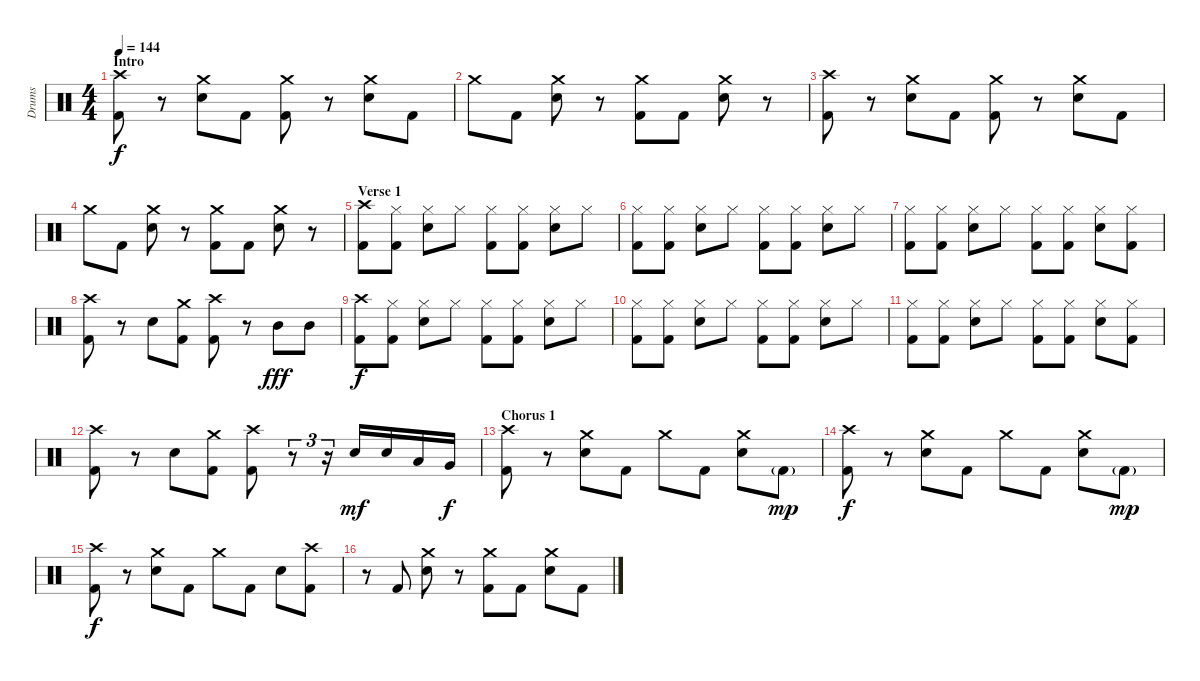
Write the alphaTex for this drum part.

\track ("Drums" "Drums") {instrument percussion}
\staff {score}
\articulation defaults
\ts (4 4)
\section ("" "Intro")
\tempo 144
\clef neutral
\ks c
("Crash high (hit)" "Kick (hit) 2").8{dy f} r.8 ("Crash medium (hit)" "Snare (hit) 2").8 "Kick (hit) 2".8 ("Crash medium (hit)" "Kick (hit) 2").8 r.8 ("Crash medium (hit)" "Snare (hit) 2").8 "Kick (hit) 2".8 |
"Crash medium (hit)".8 "Kick (hit) 2".8 ("Crash medium (hit)" "Snare (hit) 2").8 r.8 ("Crash medium (hit)" "Kick (hit) 2").8 "Kick (hit) 2".8 ("Crash medium (hit)" "Snare (hit) 2").8 r.8 |
("Crash high (hit)" "Kick (hit) 2").8 r.8 ("Crash medium (hit)" "Snare (hit) 2").8 "Kick (hit) 2".8 ("Crash medium (hit)" "Kick (hit) 2").8 r.8 ("Crash medium (hit)" "Snare (hit) 2").8 "Kick (hit) 2".8 |
"Crash medium (hit)".8 "Kick (hit) 2".8 ("Crash medium (hit)" "Snare (hit) 2").8 r.8 ("Crash medium (hit)" "Kick (hit) 2").8 "Kick (hit) 2".8 ("Crash medium (hit)" "Snare (hit) 2").8 r.8 |
\section ("" "Verse 1")
("Crash high (hit)" "Kick (hit) 2").8 ("Hi-Hat (closed)" "Kick (hit) 2").8 ("Hi-Hat (closed)" "Snare (hit) 2").8 "Hi-Hat (closed)".8 ("Hi-Hat (closed)" "Kick (hit) 2").8 ("Hi-Hat (closed)" "Kick (hit) 2").8 ("Hi-Hat (closed)" "Snare (hit) 2").8 "Hi-Hat (closed)".8 |
("Hi-Hat (closed)" "Kick (hit) 2").8 ("Hi-Hat (closed)" "Kick (hit) 2").8 ("Hi-Hat (closed)" "Snare (hit) 2").8 "Hi-Hat (closed)".8 ("Hi-Hat (closed)" "Kick (hit) 2").8 ("Hi-Hat (closed)" "Kick (hit) 2").8 ("Hi-Hat (closed)" "Snare (hit) 2").8 "Hi-Hat (closed)".8 |
("Hi-Hat (closed)" "Kick (hit) 2").8 ("Hi-Hat (closed)" "Kick (hit) 2").8 ("Hi-Hat (closed)" "Snare (hit) 2").8 "Hi-Hat (closed)".8 ("Hi-Hat (closed)" "Kick (hit) 2").8 ("Hi-Hat (closed)" "Kick (hit) 2").8 ("Hi-Hat (closed)" "Snare (hit) 2").8 ("Hi-Hat (closed)" "Kick (hit) 2").8 |
("Crash high (hit)" "Kick (hit) 2").8 r.8 "Snare (hit) 2".8 ("Crash medium (hit)" "Kick (hit) 2").8 ("Crash high (hit)" "Kick (hit) 2").8 r.8 "Mid Tom (hit)".8{dy fff} "Mid Tom (hit)".8 |
("Crash high (hit)" "Kick (hit) 2").8{dy f} ("Hi-Hat (closed)" "Kick (hit) 2").8 ("Hi-Hat (closed)" "Snare (hit) 2").8 "Hi-Hat (closed)".8 ("Hi-Hat (closed)" "Kick (hit) 2").8 ("Hi-Hat (closed)" "Kick (hit) 2").8 ("Hi-Hat (closed)" "Snare (hit) 2").8 "Hi-Hat (closed)".8 |
("Hi-Hat (closed)" "Kick (hit) 2").8 ("Hi-Hat (closed)" "Kick (hit) 2").8 ("Hi-Hat (closed)" "Snare (hit) 2").8 "Hi-Hat (closed)".8 ("Hi-Hat (closed)" "Kick (hit) 2").8 ("Hi-Hat (closed)" "Kick (hit) 2").8 ("Hi-Hat (closed)" "Snare (hit) 2").8 "Hi-Hat (closed)".8 |
("Hi-Hat (closed)" "Kick (hit) 2").8 ("Hi-Hat (closed)" "Kick (hit) 2").8 ("Hi-Hat (closed)" "Snare (hit) 2").8 "Hi-Hat (closed)".8 ("Hi-Hat (closed)" "Kick (hit) 2").8 ("Hi-Hat (closed)" "Kick (hit) 2").8 ("Hi-Hat (closed)" "Snare (hit) 2").8 ("Hi-Hat (closed)" "Kick (hit) 2").8 |
("Crash high (hit)" "Kick (hit) 2").8 r.8 "Snare (hit) 2".8 ("Crash medium (hit)" "Kick (hit) 2").8 ("Crash high (hit)" "Kick (hit) 2").8 r.8{tu (3 2)} r.16{tu (3 2)} "Snare (hit) 2".16{dy mf} "Snare (hit) 2".16 "Low Tom (hit)".16 "Very Low Tom (hit)".16{dy f} |
\section ("" "Chorus 1")
("Crash high (hit)" "Kick (hit) 2").8 r.8 ("Crash medium (hit)" "Snare (hit) 2").8 "Kick (hit) 2".8 "Crash medium (hit)".8 "Kick (hit) 2".8 ("Crash medium (hit)" "Snare (hit) 2").8 "Kick (hit) 2"{g}.8{dy mp} |
("Crash high (hit)" "Kick (hit) 2").8{dy f} r.8 ("Crash medium (hit)" "Snare (hit) 2").8 "Kick (hit) 2".8 "Crash medium (hit)".8 "Kick (hit) 2".8 ("Crash medium (hit)" "Snare (hit) 2").8 "Kick (hit) 2"{g}.8{dy mp} |
("Crash high (hit)" "Kick (hit) 2").8{dy f} r.8 ("Crash medium (hit)" "Snare (hit) 2").8 "Kick (hit) 2".8 "Crash medium (hit)".8 "Kick (hit) 2".8 "Snare (hit) 2".8 ("Crash high (hit)" "Kick (hit) 2").8 |
r.8 "Kick (hit) 2".8 ("Crash medium (hit)" "Snare (hit) 2").8 r.8 ("Crash medium (hit)" "Kick (hit) 2").8 "Kick (hit) 2".8 ("Crash medium (hit)" "Snare (hit) 2").8 "Kick (hit) 2".8
